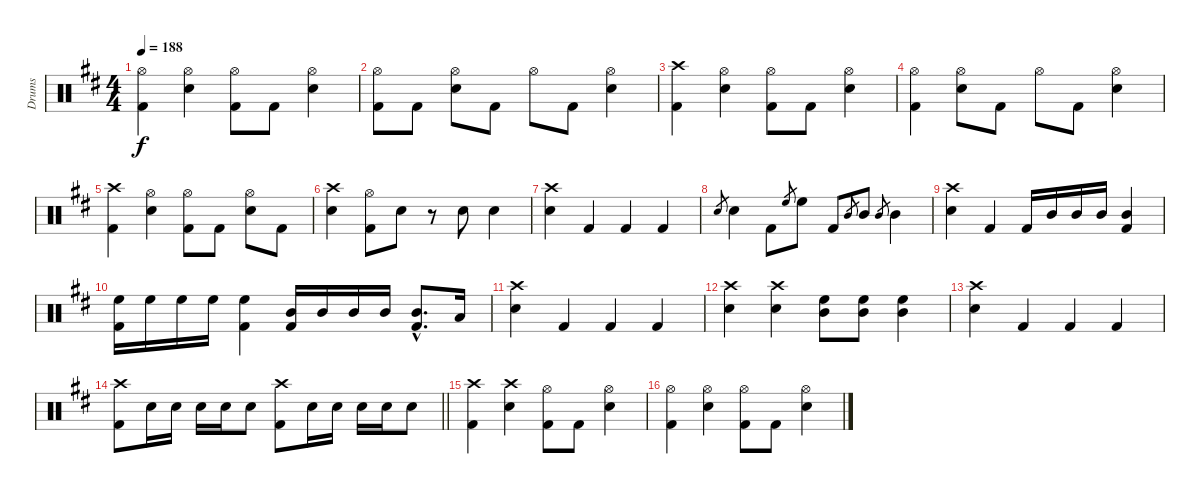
\track ("Drums" "Drums") {instrument percussion}
\staff {score}
\articulation defaults
\ts (4 4)
\tempo 188
\clef neutral
\ks bminor
("Hi-Hat (open)" "Kick (hit) 2").4{dy f} ("Hi-Hat (open)" "Electric Snare (hit)").4 ("Hi-Hat (open)" "Kick (hit) 2").8 "Kick (hit) 2".8 ("Hi-Hat (open)" "Electric Snare (hit)").4 |
("Hi-Hat (open)" "Kick (hit) 2").8 "Kick (hit) 2".8 ("Hi-Hat (open)" "Electric Snare (hit)").8 "Kick (hit) 2".8 "Hi-Hat (open)".8 "Kick (hit) 2".8 ("Hi-Hat (open)" "Electric Snare (hit)").4 |
("Crash high (hit)" "Kick (hit) 2").4 ("Hi-Hat (open)" "Electric Snare (hit)").4 ("Hi-Hat (open)" "Kick (hit) 2").8 "Kick (hit) 2".8 ("Hi-Hat (open)" "Electric Snare (hit)").4 |
("Hi-Hat (open)" "Kick (hit) 2").4 ("Hi-Hat (open)" "Electric Snare (hit)").8 "Kick (hit) 2".8 "Hi-Hat (open)".8 "Kick (hit) 2".8 ("Hi-Hat (open)" "Electric Snare (hit)").4 |
("Crash high (hit)" "Kick (hit) 2").4 ("Hi-Hat (open)" "Electric Snare (hit)").4 ("Hi-Hat (open)" "Kick (hit) 2").8 "Kick (hit) 2".8 ("Hi-Hat (open)" "Electric Snare (hit)").8 "Kick (hit) 2".8 |
("Crash high (hit)" "Electric Snare (hit)").4 ("Hi-Hat (open)" "Kick (hit) 2").8 "Electric Snare (hit)".8 r.8 "Electric Snare (hit)".8 "Electric Snare (hit)".4 |
("Crash high (hit)" "Electric Snare (hit)").4 "Kick (hit) 2".4 "Kick (hit) 2".4 "Kick (hit) 2".4 |
"Electric Snare (hit)".8{gr} "Electric Snare (hit)".4 "Kick (hit) 2".8 "High Floor Tom (hit)".8{gr} "High Floor Tom (hit)".8 "Kick (hit) 2".8 "Mid Tom (hit)".8{gr} "Mid Tom (hit)".8 "Mid Tom (hit)".8{gr} "Mid Tom (hit)".4 |
("Crash high (hit)" "Electric Snare (hit)").4 "Kick (hit) 2".4 "Kick (hit) 2".16 "Mid Tom (hit)".16 "Mid Tom (hit)".16 "Mid Tom (hit)".16 ("Mid Tom (hit)" "Kick (hit) 2").4 |
("High Floor Tom (hit)" "Kick (hit) 2").16 "High Floor Tom (hit)".16 "High Floor Tom (hit)".16 "High Floor Tom (hit)".16 ("High Floor Tom (hit)" "Kick (hit) 2").4 ("Mid Tom (hit)" "Kick (hit) 2").16 "Mid Tom (hit)".16 "Mid Tom (hit)".16 "Mid Tom (hit)".16 ("Mid Tom (hit)"{hac} "Kick (hit) 2"{hac}).8{d} "Low Tom (hit)".16 |
("Crash high (hit)" "Electric Snare (hit)").4 "Kick (hit) 2".4 "Kick (hit) 2".4 "Kick (hit) 2".4 |
("Crash high (hit)" "Electric Snare (hit)").4 ("Crash high (hit)" "Electric Snare (hit)").4 ("High Floor Tom (hit)" "Mid Tom (hit)").8 ("High Floor Tom (hit)" "Mid Tom (hit)").8 ("High Floor Tom (hit)" "Mid Tom (hit)").4 |
("Crash high (hit)" "Electric Snare (hit)").4 "Kick (hit) 2".4 "Kick (hit) 2".4 "Kick (hit) 2".4 |
\barLineRight lightlight
("Crash high (hit)" "Kick (hit) 2").8 "Electric Snare (hit)".16 "Electric Snare (hit)".16 "Electric Snare (hit)".16 "Electric Snare (hit)".16 "Electric Snare (hit)".8 ("Crash high (hit)" "Kick (hit) 2").8 "Electric Snare (hit)".16 "Electric Snare (hit)".16 "Electric Snare (hit)".16 "Electric Snare (hit)".16 "Electric Snare (hit)".8 |
("Crash high (hit)" "Kick (hit) 2").4 ("Crash high (hit)" "Electric Snare (hit)").4 ("Hi-Hat (open)" "Kick (hit) 2").8 "Kick (hit) 2".8 ("Hi-Hat (open)" "Electric Snare (hit)").4 |
("Hi-Hat (open)" "Kick (hit) 2").4 ("Hi-Hat (open)" "Electric Snare (hit)").4 ("Hi-Hat (open)" "Kick (hit) 2").8 "Kick (hit) 2".8 ("Hi-Hat (open)" "Electric Snare (hit)").4
